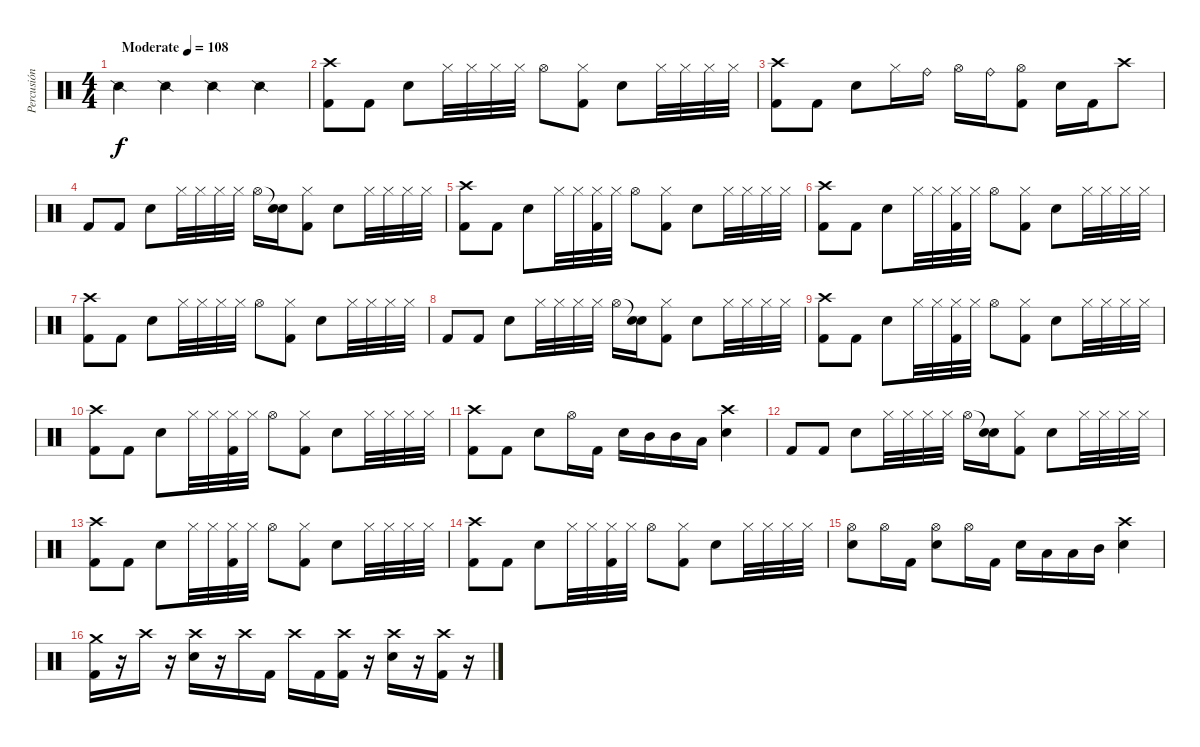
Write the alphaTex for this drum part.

\track ("Percusión" "Percusión") {instrument percussion}
\staff {score}
\articulation defaults
\ts (4 4)
\tempo (108 "Moderate")
\clef neutral
\ks c "Snare (side stick) 2".4{dy f} "Snare (side stick) 2".4 "Snare (side stick) 2".4 "Snare (side stick) 2".4
|
("Crash high (hit)" "Kick (hit) 2").8 "Kick (hit) 2".8 "Electric Snare (hit)".8 "Hi-Hat (closed)".32 "Hi-Hat (closed)".32 "Hi-Hat (closed)".32 "Hi-Hat (closed)".32 "Hi-Hat (open)".8 ("Hi-Hat (closed)" "Kick (hit) 2").8 "Electric Snare (hit)".8 "Hi-Hat (closed)".32 "Hi-Hat (closed)".32 "Hi-Hat (closed)".32 "Hi-Hat (closed)".32 |
("Crash high (hit)" "Kick (hit) 2").8 "Kick (hit) 2".8 "Electric Snare (hit)".8 "Hi-Hat (closed)".16 "Ride (bell)".16 "Hi-Hat (open)".16 "Ride (bell)".16 ("Hi-Hat (open)" "Kick (hit) 2").8 "Electric Snare (hit)".16 "Kick (hit) 2".16 "Crash high (hit)".8 |
"Kick (hit) 2".8 "Kick (hit) 2".8 "Electric Snare (hit)".8 "Hi-Hat (closed)".32 "Hi-Hat (closed)".32 "Hi-Hat (closed)".32 "Hi-Hat (closed)".32 "Hi-Hat (open)".16 ("Snare (hit)"{t} "Electric Snare (hit)").16 ("Hi-Hat (closed)" "Kick (hit) 2").8 "Electric Snare (hit)".8 "Hi-Hat (closed)".32 "Hi-Hat (closed)".32 "Hi-Hat (closed)".32 "Hi-Hat (closed)".32 |
("Crash high (hit)" "Kick (hit) 2").8 "Kick (hit) 2".8 "Electric Snare (hit)".8 "Hi-Hat (closed)".32 "Hi-Hat (closed)".32 ("Hi-Hat (closed)" "Kick (hit) 2").32 "Hi-Hat (closed)".32 "Hi-Hat (open)".8 ("Hi-Hat (closed)" "Kick (hit) 2").8 "Electric Snare (hit)".8 "Hi-Hat (closed)".32 "Hi-Hat (closed)".32 "Hi-Hat (closed)".32 "Hi-Hat (closed)".32 |
("Crash high (hit)" "Kick (hit) 2").8 "Kick (hit) 2".8 "Electric Snare (hit)".8 "Hi-Hat (closed)".32 "Hi-Hat (closed)".32 ("Hi-Hat (closed)" "Kick (hit) 2").32 "Hi-Hat (closed)".32 "Hi-Hat (open)".8 ("Hi-Hat (closed)" "Kick (hit) 2").8 "Electric Snare (hit)".8 "Hi-Hat (closed)".32 "Hi-Hat (closed)".32 "Hi-Hat (closed)".32 "Hi-Hat (closed)".32 |
("Crash high (hit)" "Kick (hit) 2").8 "Kick (hit) 2".8 "Electric Snare (hit)".8 "Hi-Hat (closed)".32 "Hi-Hat (closed)".32 "Hi-Hat (closed)".32 "Hi-Hat (closed)".32 "Hi-Hat (open)".8 ("Hi-Hat (closed)" "Kick (hit) 2").8 "Electric Snare (hit)".8 "Hi-Hat (closed)".32 "Hi-Hat (closed)".32 "Hi-Hat (closed)".32 "Hi-Hat (closed)".32 |
"Kick (hit) 2".8 "Kick (hit) 2".8 "Electric Snare (hit)".8 "Hi-Hat (closed)".32 "Hi-Hat (closed)".32 "Hi-Hat (closed)".32 "Hi-Hat (closed)".32 "Hi-Hat (open)".16 ("Snare (hit)"{t} "Electric Snare (hit)").16 ("Hi-Hat (closed)" "Kick (hit) 2").8 "Electric Snare (hit)".8 "Hi-Hat (closed)".32 "Hi-Hat (closed)".32 "Hi-Hat (closed)".32 "Hi-Hat (closed)".32 |
("Crash high (hit)" "Kick (hit) 2").8 "Kick (hit) 2".8 "Electric Snare (hit)".8 "Hi-Hat (closed)".32 "Hi-Hat (closed)".32 ("Hi-Hat (closed)" "Kick (hit) 2").32 "Hi-Hat (closed)".32 "Hi-Hat (open)".8 ("Hi-Hat (closed)" "Kick (hit) 2").8 "Electric Snare (hit)".8 "Hi-Hat (closed)".32 "Hi-Hat (closed)".32 "Hi-Hat (closed)".32 "Hi-Hat (closed)".32 |
("Crash high (hit)" "Kick (hit) 2").8 "Kick (hit) 2".8 "Electric Snare (hit)".8 "Hi-Hat (closed)".32 "Hi-Hat (closed)".32 ("Hi-Hat (closed)" "Kick (hit) 2").32 "Hi-Hat (closed)".32 "Hi-Hat (open)".8 ("Hi-Hat (closed)" "Kick (hit) 2").8 "Electric Snare (hit)".8 "Hi-Hat (closed)".32 "Hi-Hat (closed)".32 "Hi-Hat (closed)".32 "Hi-Hat (closed)".32 |
("Crash high (hit)" "Kick (hit) 2").8 "Kick (hit) 2".8 "Electric Snare (hit)".8 "Hi-Hat (open)".16 "Kick (hit) 2".16 "Electric Snare (hit)".16 "Mid Tom (hit)".16 "Mid Tom (hit)".16 "Low Tom (hit)".16 ("Crash high (hit)" "Electric Snare (hit)").4 |
"Kick (hit) 2".8 "Kick (hit) 2".8 "Electric Snare (hit)".8 "Hi-Hat (closed)".32 "Hi-Hat (closed)".32 "Hi-Hat (closed)".32 "Hi-Hat (closed)".32 "Hi-Hat (open)".16 ("Snare (hit)"{t} "Electric Snare (hit)").16 ("Hi-Hat (closed)" "Kick (hit) 2").8 "Electric Snare (hit)".8 "Hi-Hat (closed)".32 "Hi-Hat (closed)".32 "Hi-Hat (closed)".32 "Hi-Hat (closed)".32 |
("Crash high (hit)" "Kick (hit) 2").8 "Kick (hit) 2".8 "Electric Snare (hit)".8 "Hi-Hat (closed)".32 "Hi-Hat (closed)".32 ("Hi-Hat (closed)" "Kick (hit) 2").32 "Hi-Hat (closed)".32 "Hi-Hat (open)".8 ("Hi-Hat (closed)" "Kick (hit) 2").8 "Electric Snare (hit)".8 "Hi-Hat (closed)".32 "Hi-Hat (closed)".32 "Hi-Hat (closed)".32 "Hi-Hat (closed)".32 |
("Crash high (hit)" "Kick (hit) 2").8 "Kick (hit) 2".8 "Electric Snare (hit)".8 "Hi-Hat (closed)".32 "Hi-Hat (closed)".32 ("Hi-Hat (closed)" "Kick (hit) 2").32 "Hi-Hat (closed)".32 "Hi-Hat (open)".8 ("Hi-Hat (closed)" "Kick (hit) 2").8 "Electric Snare (hit)".8 "Hi-Hat (closed)".32 "Hi-Hat (closed)".32 "Hi-Hat (closed)".32 "Hi-Hat (closed)".32 |
("Hi-Hat (open)" "Electric Snare (hit)").8 "Hi-Hat (open)".16 "Kick (hit) 2".16 ("Hi-Hat (open)" "Electric Snare (hit)").8 "Hi-Hat (open)".16 "Kick (hit) 2".16 "Electric Snare (hit)".16 "Low Tom (hit)".16 "Low Tom (hit)".16 "Mid Tom (hit)".16 ("Crash high (hit)" "Electric Snare (hit)").4 |
("Crash medium (hit)" "Kick (hit) 2").16 r.16 "Crash high (hit)".16 r.16 ("Crash high (hit)" "Electric Snare (hit)").16 r.16 "Crash high (hit)".16 "Kick (hit) 2".16 "Crash high (hit)".16 "Kick (hit) 2".16 ("Crash high (hit)" "Kick (hit) 2").16 r.16 ("Crash high (hit)" "Electric Snare (hit)").16 r.16 ("Crash high (hit)" "Kick (hit) 2").16 r.16
